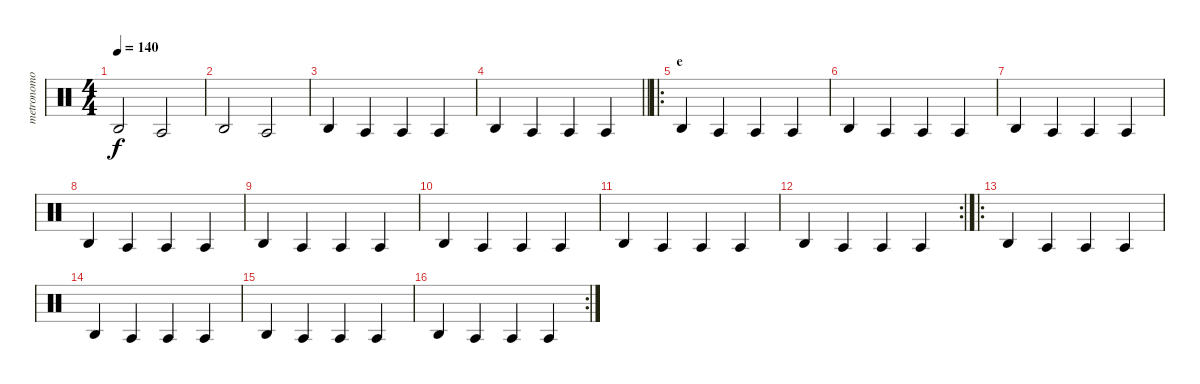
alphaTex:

\track ("metronomo" "metronomo") {instrument percussion}
\staff {score}
\articulation defaults
\ts (4 4)
\tempo 140
\clef neutral
\ks c "Agogo high (hit)".2{dy f} "Agogo tow (hit)".2
|
"Agogo high (hit)".2 "Agogo tow (hit)".2 |
"Agogo high (hit)".4 "Agogo tow (hit)".4 "Agogo tow (hit)".4 "Agogo tow (hit)".4 |
\barLineRight lightlight "Agogo high (hit)".4 "Agogo tow (hit)".4 "Agogo tow (hit)".4 "Agogo tow (hit)".4
|
\ro
\section ("" "e")
"Agogo high (hit)".4 "Agogo tow (hit)".4 "Agogo tow (hit)".4 "Agogo tow (hit)".4 |
"Agogo high (hit)".4 "Agogo tow (hit)".4 "Agogo tow (hit)".4 "Agogo tow (hit)".4 |
"Agogo high (hit)".4 "Agogo tow (hit)".4 "Agogo tow (hit)".4 "Agogo tow (hit)".4 |
"Agogo high (hit)".4 "Agogo tow (hit)".4 "Agogo tow (hit)".4 "Agogo tow (hit)".4 |
"Agogo high (hit)".4 "Agogo tow (hit)".4 "Agogo tow (hit)".4 "Agogo tow (hit)".4 |
"Agogo high (hit)".4 "Agogo tow (hit)".4 "Agogo tow (hit)".4 "Agogo tow (hit)".4 |
"Agogo high (hit)".4 "Agogo tow (hit)".4 "Agogo tow (hit)".4 "Agogo tow (hit)".4 |
\rc 2 "Agogo high (hit)".4 "Agogo tow (hit)".4 "Agogo tow (hit)".4 "Agogo tow (hit)".4
|
\ro "Agogo high (hit)".4 "Agogo tow (hit)".4 "Agogo tow (hit)".4 "Agogo tow (hit)".4
|
"Agogo high (hit)".4 "Agogo tow (hit)".4 "Agogo tow (hit)".4 "Agogo tow (hit)".4 |
"Agogo high (hit)".4 "Agogo tow (hit)".4 "Agogo tow (hit)".4 "Agogo tow (hit)".4 |
\rc 2 "Agogo high (hit)".4 "Agogo tow (hit)".4 "Agogo tow (hit)".4 "Agogo tow (hit)".4
